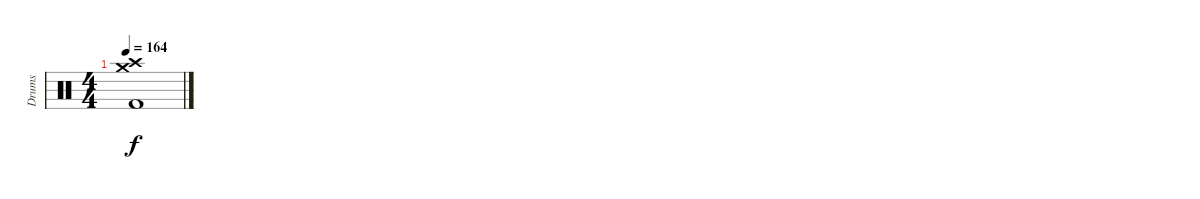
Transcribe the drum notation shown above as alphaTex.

\track ("Drums" "Drums") {instrument percussion}
\staff {score}
\articulation defaults
\ts (4 4)
\tempo 164
\clef neutral
\ks c
("Crash medium (hit)" "Crash high (hit)" "Kick (hit) 2").1{dy f}
